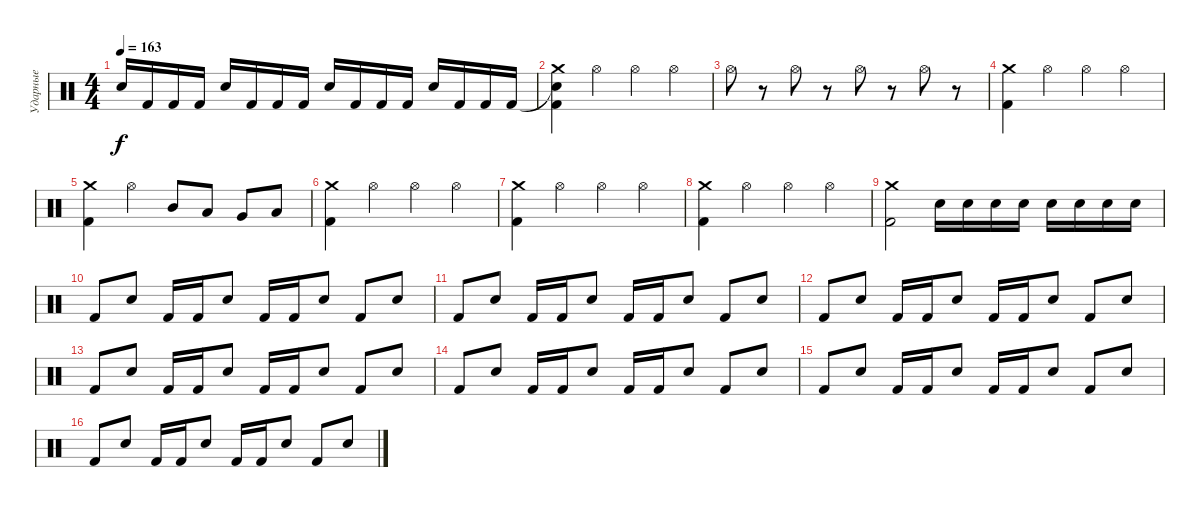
\track ("Ударные" "Ударные") {instrument percussion}
\staff {score}
\articulation defaults
\ts (4 4)
\tempo 163
\clef neutral
\ks c "Electric Snare (hit)".16{dy f} "Kick (hit) 2".16 "Kick (hit) 2".16 "Kick (hit) 2".16 "Electric Snare (hit)".16 "Kick (hit) 2".16 "Kick (hit) 2".16 "Kick (hit) 2".16 "Electric Snare (hit)".16 "Kick (hit) 2".16 "Kick (hit) 2".16 "Kick (hit) 2".16 "Electric Snare (hit)".16 "Kick (hit) 2".16 "Kick (hit) 2".16 "Kick (hit) 2".16
|
("Snare (hit)"{t} "Kick (hit) 2" "Crash medium (hit)").4 "Hi-Hat (open)".4 "Hi-Hat (open)".4 "Hi-Hat (open)".4 |
"Hi-Hat (open)".8 r.8 "Hi-Hat (open)".8 r.8 "Hi-Hat (open)".8 r.8 "Hi-Hat (open)".8 r.8 |
("Kick (hit) 2" "Crash medium (hit)").4 "Hi-Hat (open)".4 "Hi-Hat (open)".4 "Hi-Hat (open)".4 |
("Kick (hit) 2" "Crash medium (hit)").4 "Hi-Hat (open)".4 "Mid Tom (hit)".8 "Low Tom (hit)".8 "Very Low Tom (hit)".8 "Low Floor Tom (hit)".8 |
("Kick (hit) 2" "Crash medium (hit)").4 "Hi-Hat (open)".4 "Hi-Hat (open)".4 "Hi-Hat (open)".4 |
("Kick (hit) 2" "Crash medium (hit)").4 "Hi-Hat (open)".4 "Hi-Hat (open)".4 "Hi-Hat (open)".4 |
("Kick (hit) 2" "Crash medium (hit)").4 "Hi-Hat (open)".4 "Hi-Hat (open)".4 "Hi-Hat (open)".4 |
("Kick (hit) 2" "Crash medium (hit)").2 "Electric Snare (hit)".16 "Electric Snare (hit)".16 "Electric Snare (hit)".16 "Electric Snare (hit)".16 "Electric Snare (hit)".16 "Electric Snare (hit)".16 "Electric Snare (hit)".16 "Electric Snare (hit)".16 |
"Kick (hit) 2".8 "Electric Snare (hit)".8 "Kick (hit) 2".16 "Kick (hit) 2".16 "Electric Snare (hit)".8 "Kick (hit) 2".16 "Kick (hit) 2".16 "Electric Snare (hit)".8 "Kick (hit) 2".8 "Electric Snare (hit)".8 |
"Kick (hit) 2".8 "Electric Snare (hit)".8 "Kick (hit) 2".16 "Kick (hit) 2".16 "Electric Snare (hit)".8 "Kick (hit) 2".16 "Kick (hit) 2".16 "Electric Snare (hit)".8 "Kick (hit) 2".8 "Electric Snare (hit)".8 |
"Kick (hit) 2".8 "Electric Snare (hit)".8 "Kick (hit) 2".16 "Kick (hit) 2".16 "Electric Snare (hit)".8 "Kick (hit) 2".16 "Kick (hit) 2".16 "Electric Snare (hit)".8 "Kick (hit) 2".8 "Electric Snare (hit)".8 |
"Kick (hit) 2".8 "Electric Snare (hit)".8 "Kick (hit) 2".16 "Kick (hit) 2".16 "Electric Snare (hit)".8 "Kick (hit) 2".16 "Kick (hit) 2".16 "Electric Snare (hit)".8 "Kick (hit) 2".8 "Electric Snare (hit)".8 |
"Kick (hit) 2".8 "Electric Snare (hit)".8 "Kick (hit) 2".16 "Kick (hit) 2".16 "Electric Snare (hit)".8 "Kick (hit) 2".16 "Kick (hit) 2".16 "Electric Snare (hit)".8 "Kick (hit) 2".8 "Electric Snare (hit)".8 |
"Kick (hit) 2".8 "Electric Snare (hit)".8 "Kick (hit) 2".16 "Kick (hit) 2".16 "Electric Snare (hit)".8 "Kick (hit) 2".16 "Kick (hit) 2".16 "Electric Snare (hit)".8 "Kick (hit) 2".8 "Electric Snare (hit)".8 |
"Kick (hit) 2".8 "Electric Snare (hit)".8 "Kick (hit) 2".16 "Kick (hit) 2".16 "Electric Snare (hit)".8 "Kick (hit) 2".16 "Kick (hit) 2".16 "Electric Snare (hit)".8 "Kick (hit) 2".8 "Electric Snare (hit)".8
